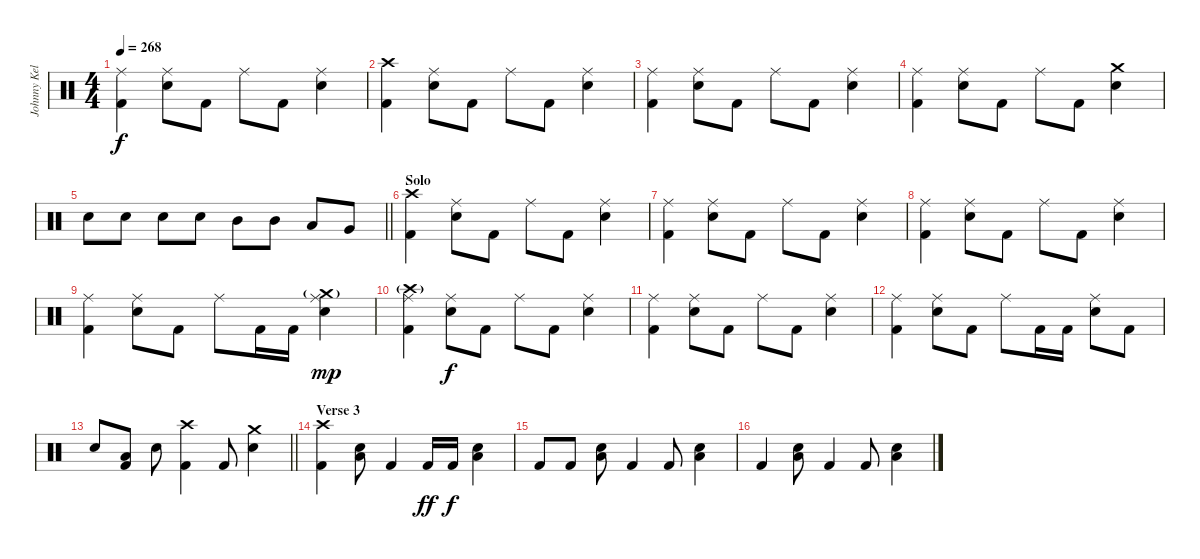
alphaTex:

\track ("Johnny Kelly" "Johnny Kel") {instrument percussion}
\staff {score}
\articulation defaults
\ts (4 4)
\tempo 268
\clef neutral
\ks c
("Ride (middle)" "Kick (hit) 2").4{dy f} ("Ride (middle)" "Electric Snare (hit)").8 "Kick (hit) 2".8 "Ride (middle)".8 "Kick (hit) 2".8 ("Ride (middle)" "Electric Snare (hit)").4 |
("Crash high (hit)" "Kick (hit) 2").4 ("Ride (middle)" "Electric Snare (hit)").8 "Kick (hit) 2".8 "Ride (middle)".8 "Kick (hit) 2".8 ("Ride (middle)" "Electric Snare (hit)").4 |
("Ride (middle)" "Kick (hit) 2").4 ("Ride (middle)" "Electric Snare (hit)").8 "Kick (hit) 2".8 "Ride (middle)".8 "Kick (hit) 2".8 ("Ride (middle)" "Electric Snare (hit)").4 |
("Ride (middle)" "Kick (hit) 2").4 ("Ride (middle)" "Electric Snare (hit)").8 "Kick (hit) 2".8 "Ride (middle)".8 "Kick (hit) 2".8 ("Crash medium (hit)" "Electric Snare (hit)").4 |
\barLineRight lightlight "Electric Snare (hit)".8 "Electric Snare (hit)".8 "Electric Snare (hit)".8 "Electric Snare (hit)".8 "Mid Tom (hit)".8 "Mid Tom (hit)".8 "Low Tom (hit)".8 "Very Low Tom (hit)".8
|
\section ("" "Solo")
("Crash high (hit)" "Kick (hit) 2").4 ("Ride (middle)" "Electric Snare (hit)").8 "Kick (hit) 2".8 "Ride (middle)".8 "Kick (hit) 2".8 ("Ride (middle)" "Electric Snare (hit)").4 |
("Ride (middle)" "Kick (hit) 2").4 ("Ride (middle)" "Electric Snare (hit)").8 "Kick (hit) 2".8 "Ride (middle)".8 "Kick (hit) 2".8 ("Ride (middle)" "Electric Snare (hit)").4 |
("Ride (middle)" "Kick (hit) 2").4 ("Ride (middle)" "Electric Snare (hit)").8 "Kick (hit) 2".8 "Ride (middle)".8 "Kick (hit) 2".8 ("Ride (middle)" "Electric Snare (hit)").4 |
("Ride (middle)" "Kick (hit) 2").4 ("Ride (middle)" "Electric Snare (hit)").8 "Kick (hit) 2".8 "Ride (middle)".8 "Kick (hit) 2".16 "Kick (hit) 2".16 ("Ride (middle)" "Crash medium (hit)"{g} "Electric Snare (hit)").4{dy mp} |
("Ride (middle)" "Crash high (hit)"{g} "Kick (hit) 2").4 ("Ride (middle)" "Electric Snare (hit)").8{dy f} "Kick (hit) 2".8 "Ride (middle)".8 "Kick (hit) 2".8 ("Ride (middle)" "Electric Snare (hit)").4 |
("Ride (middle)" "Kick (hit) 2").4 ("Ride (middle)" "Electric Snare (hit)").8 "Kick (hit) 2".8 "Ride (middle)".8 "Kick (hit) 2".8 ("Ride (middle)" "Electric Snare (hit)").4 |
("Ride (middle)" "Kick (hit) 2").4 ("Ride (middle)" "Electric Snare (hit)").8 "Kick (hit) 2".8 "Ride (middle)".8 "Kick (hit) 2".16 "Kick (hit) 2".16 ("Ride (middle)" "Electric Snare (hit)").8 "Kick (hit) 2".8 |
\barLineRight lightlight "Electric Snare (hit)".8
("Low Floor Tom (hit)" "Kick (hit) 2").8 "Electric Snare (hit)".8 ("Crash high (hit)" "Kick (hit) 2").4 "Kick (hit) 2".8 ("Crash medium (hit)" "Electric Snare (hit)").4 |
\section ("" "Verse 3")
("Crash high (hit)" "Kick (hit) 2").4 ("Electric Snare (hit)" "Low Floor Tom (hit)").8 "Kick (hit) 2".4 "Kick (hit) 2".16{dy ff} "Kick (hit) 2".16{dy f} ("Electric Snare (hit)" "Low Floor Tom (hit)").4 |
"Kick (hit) 2".8 "Kick (hit) 2".8 ("Electric Snare (hit)" "Low Floor Tom (hit)").8 "Kick (hit) 2".4 "Kick (hit) 2".8 ("Electric Snare (hit)" "Low Floor Tom (hit)").4 |
"Kick (hit) 2".4 ("Electric Snare (hit)" "Low Floor Tom (hit)").8 "Kick (hit) 2".4 "Kick (hit) 2".8 ("Electric Snare (hit)" "Low Floor Tom (hit)").4
